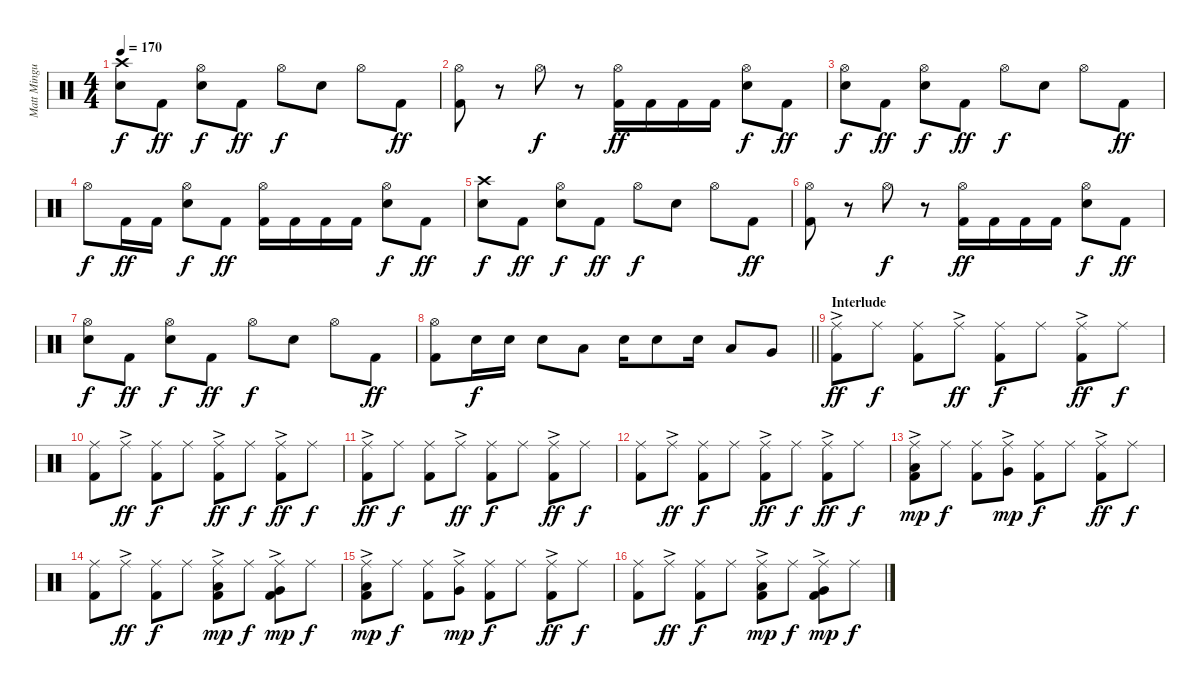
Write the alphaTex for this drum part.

\track ("Matt Mingus (Drum Kit)" "Matt Mingu") {instrument percussion}
\staff {score}
\articulation defaults
\ts (4 4)
\tempo 170
\clef neutral
\ks c
("Crash high (hit)" "Electric Snare (hit)").8{dy f} "Kick (hit) 2".8{dy ff} ("Hi-Hat (open)" "Electric Snare (hit)").8{dy f} "Kick (hit) 2".8{dy ff} "Hi-Hat (open)".8{dy f} "Electric Snare (hit)".8 "Hi-Hat (open)".8 "Kick (hit) 2".8{dy ff} |
("Hi-Hat (open)" "Kick (hit) 2").8 r.8 "Hi-Hat (open)".8{dy f} r.8 ("Hi-Hat (open)" "Kick (hit) 2").16{dy ff} "Kick (hit) 2".16 "Kick (hit) 2".16 "Kick (hit) 2".16 ("Hi-Hat (open)" "Electric Snare (hit)").8{dy f} "Kick (hit) 2".8{dy ff} |
("Hi-Hat (open)" "Electric Snare (hit)").8{dy f} "Kick (hit) 2".8{dy ff} ("Hi-Hat (open)" "Electric Snare (hit)").8{dy f} "Kick (hit) 2".8{dy ff} "Hi-Hat (open)".8{dy f} "Electric Snare (hit)".8 "Hi-Hat (open)".8 "Kick (hit) 2".8{dy ff} |
"Hi-Hat (open)".8{dy f} "Kick (hit) 2".16{dy ff} "Kick (hit) 2".16 ("Hi-Hat (open)" "Electric Snare (hit)").8{dy f} "Kick (hit) 2".8{dy ff} ("Hi-Hat (open)" "Kick (hit) 2").16 "Kick (hit) 2".16 "Kick (hit) 2".16 "Kick (hit) 2".16 ("Hi-Hat (open)" "Electric Snare (hit)").8{dy f} "Kick (hit) 2".8{dy ff} |
("Crash high (hit)" "Electric Snare (hit)").8{dy f} "Kick (hit) 2".8{dy ff} ("Hi-Hat (open)" "Electric Snare (hit)").8{dy f} "Kick (hit) 2".8{dy ff} "Hi-Hat (open)".8{dy f} "Electric Snare (hit)".8 "Hi-Hat (open)".8 "Kick (hit) 2".8{dy ff} |
("Hi-Hat (open)" "Kick (hit) 2").8 r.8 "Hi-Hat (open)".8{dy f} r.8 ("Hi-Hat (open)" "Kick (hit) 2").16{dy ff} "Kick (hit) 2".16 "Kick (hit) 2".16 "Kick (hit) 2".16 ("Hi-Hat (open)" "Electric Snare (hit)").8{dy f} "Kick (hit) 2".8{dy ff} |
("Hi-Hat (open)" "Electric Snare (hit)").8{dy f} "Kick (hit) 2".8{dy ff} ("Hi-Hat (open)" "Electric Snare (hit)").8{dy f} "Kick (hit) 2".8{dy ff} "Hi-Hat (open)".8{dy f} "Electric Snare (hit)".8 "Hi-Hat (open)".8 "Kick (hit) 2".8{dy ff} |
\barLineRight lightlight
("Hi-Hat (open)" "Kick (hit) 2").8 "Electric Snare (hit)".16{dy f} "Electric Snare (hit)".16 "Electric Snare (hit)".8 "Low Tom (hit)".8 "Electric Snare (hit)".16 "Electric Snare (hit)".8 "Electric Snare (hit)".16 "Low Tom (hit)".8 "Very Low Tom (hit)".8 |
\section ("" "Interlude")
("Ride (middle)"{ac} "Kick (hit) 2").8{dy ff volume 5} "Ride (middle)".8{dy f} ("Ride (middle)" "Kick (hit) 2").8{volume 12} "Ride (middle)"{ac}.8{dy ff} ("Ride (middle)" "Kick (hit) 2").8{dy f} "Ride (middle)".8 ("Ride (middle)"{ac} "Kick (hit) 2").8{dy ff} "Ride (middle)".8{dy f} |
("Ride (middle)" "Kick (hit) 2").8 "Ride (middle)"{ac}.8{dy ff} ("Ride (middle)" "Kick (hit) 2").8{dy f} "Ride (middle)".8 ("Ride (middle)"{ac} "Kick (hit) 2").8{dy ff} "Ride (middle)".8{dy f} ("Ride (middle)"{ac} "Kick (hit) 2").8{dy ff} "Ride (middle)".8{dy f} |
("Ride (middle)"{ac} "Kick (hit) 2").8{dy ff} "Ride (middle)".8{dy f} ("Ride (middle)" "Kick (hit) 2").8 "Ride (middle)"{ac}.8{dy ff} ("Ride (middle)" "Kick (hit) 2").8{dy f} "Ride (middle)".8 ("Ride (middle)"{ac} "Kick (hit) 2").8{dy ff} "Ride (middle)".8{dy f} |
("Ride (middle)" "Kick (hit) 2").8 "Ride (middle)"{ac}.8{dy ff} ("Ride (middle)" "Kick (hit) 2").8{dy f} "Ride (middle)".8 ("Ride (middle)"{ac} "Kick (hit) 2").8{dy ff} "Ride (middle)".8{dy f} ("Ride (middle)"{ac} "Kick (hit) 2").8{dy ff} "Ride (middle)".8{dy f} |
("Ride (middle)"{ac} "Low Tom (hit)" "Kick (hit) 2").8{dy mp} "Ride (middle)".8{dy f} ("Ride (middle)" "Kick (hit) 2").8 ("Ride (middle)"{ac} "Very Low Tom (hit)").8{dy mp} ("Ride (middle)" "Kick (hit) 2").8{dy f} "Ride (middle)".8 ("Ride (middle)"{ac} "Kick (hit) 2").8{dy ff} "Ride (middle)".8{dy f} |
("Ride (middle)" "Kick (hit) 2").8 "Ride (middle)"{ac}.8{dy ff} ("Ride (middle)" "Kick (hit) 2").8{dy f} "Ride (middle)".8 ("Ride (middle)"{ac} "Low Tom (hit)" "Kick (hit) 2").8{dy mp} "Ride (middle)".8{dy f} ("Ride (middle)"{ac} "Very Low Tom (hit)" "Kick (hit) 2").8{dy mp} "Ride (middle)".8{dy f} |
("Ride (middle)"{ac} "Low Tom (hit)" "Kick (hit) 2").8{dy mp} "Ride (middle)".8{dy f} ("Ride (middle)" "Kick (hit) 2").8 ("Ride (middle)"{ac} "Very Low Tom (hit)").8{dy mp} ("Ride (middle)" "Kick (hit) 2").8{dy f} "Ride (middle)".8 ("Ride (middle)"{ac} "Kick (hit) 2").8{dy ff} "Ride (middle)".8{dy f} |
("Ride (middle)" "Kick (hit) 2").8 "Ride (middle)"{ac}.8{dy ff} ("Ride (middle)" "Kick (hit) 2").8{dy f} "Ride (middle)".8 ("Ride (middle)"{ac} "Low Tom (hit)" "Kick (hit) 2").8{dy mp} "Ride (middle)".8{dy f} ("Ride (middle)"{ac} "Very Low Tom (hit)" "Kick (hit) 2").8{dy mp} "Ride (middle)".8{dy f}
